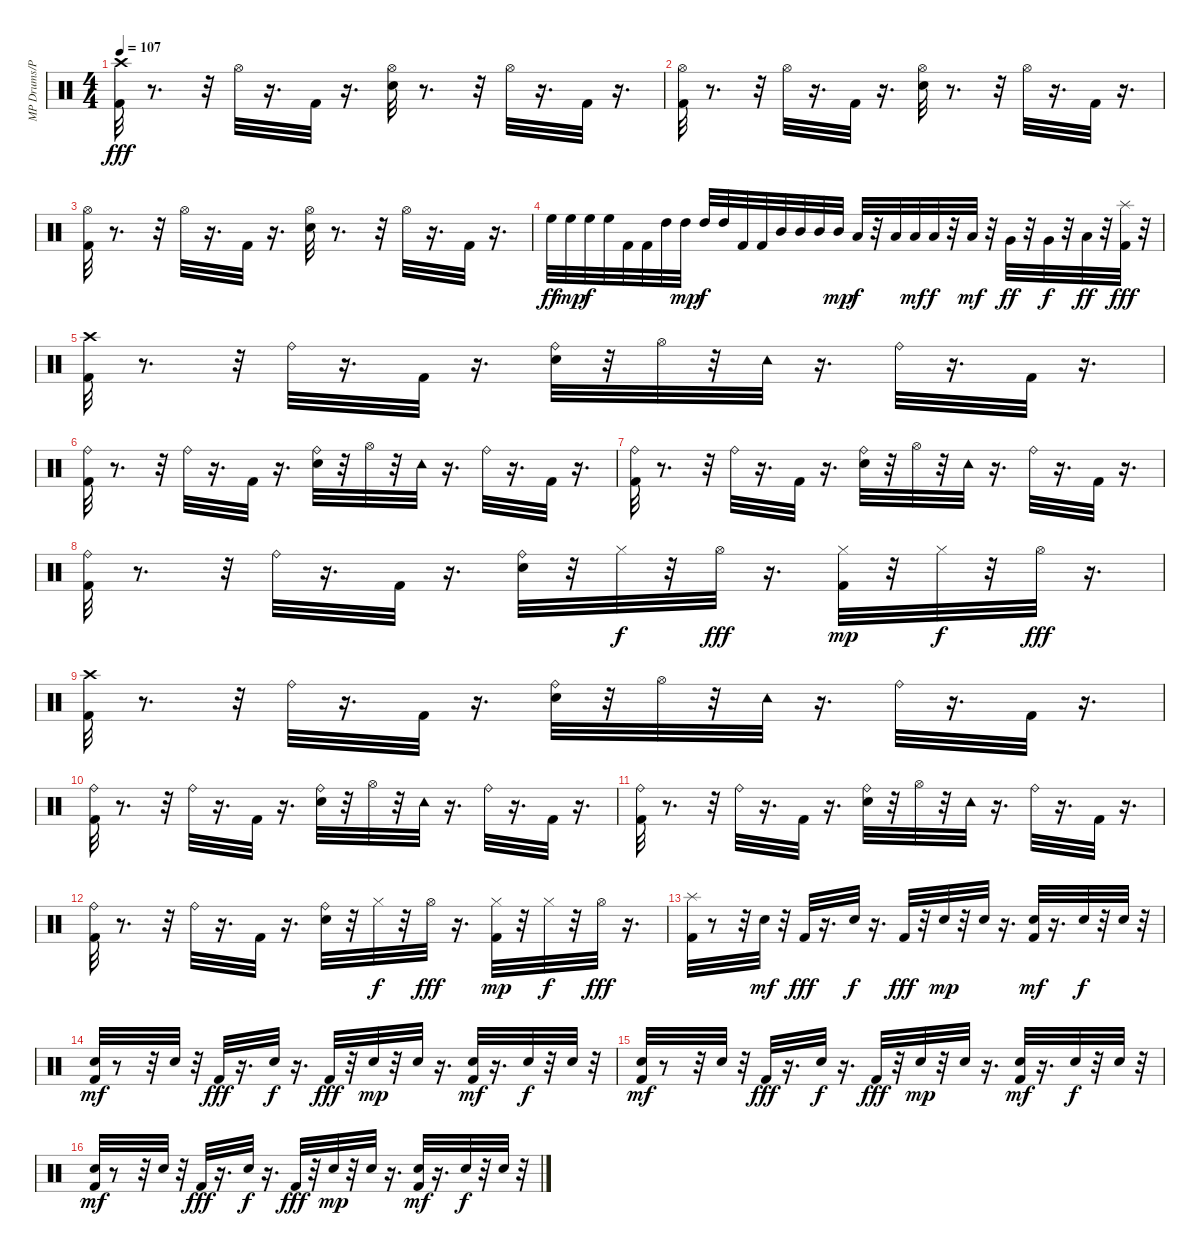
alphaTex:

\track ("MP Drums/Percussion" "MP Drums/P") {instrument percussion}
\staff {score}
\articulation defaults
\ts (4 4)
\tempo 107
\clef neutral
\ks c
("Kick (hit) 2" "Crash high (hit)").32{dy fff} r.8{d} r.32 "Hi-Hat (open)".32 r.16{d} "Kick (hit) 2".32 r.16{d} ("Snare (hit) 2" "Hi-Hat (open)").32 r.8{d} r.32 "Hi-Hat (open)".32 r.16{d} "Kick (hit) 2".32 r.16{d} |
("Kick (hit) 2" "Hi-Hat (open)").32 r.8{d} r.32 "Hi-Hat (open)".32 r.16{d} "Kick (hit) 2".32 r.16{d} ("Snare (hit) 2" "Hi-Hat (open)").32 r.8{d} r.32 "Hi-Hat (open)".32 r.16{d} "Kick (hit) 2".32 r.16{d} |
("Kick (hit) 2" "Hi-Hat (open)").32 r.8{d} r.32 "Hi-Hat (open)".32 r.16{d} "Kick (hit) 2".32 r.16{d} ("Snare (hit) 2" "Hi-Hat (open)").32 r.8{d} r.32 "Hi-Hat (open)".32 r.16{d} "Kick (hit) 2".32 r.16{d} |
"High Floor Tom (hit)".32{dy ff} "High Floor Tom (hit)".32{dy mp} "High Floor Tom (hit)".32{dy f} "High Floor Tom (hit)".32 "Kick (hit) 2".32 "Kick (hit) 2".32 "High Tom (hit)".32 "High Tom (hit)".32{dy mp} "High Tom (hit)".32{dy f} "High Tom (hit)".32 "Kick (hit) 2".32 "Kick (hit) 2".32 "Mid Tom (hit)".32 "Mid Tom (hit)".32 "Mid Tom (hit)".32 "Mid Tom (hit)".32{dy mp} "Low Tom (hit)".32{dy f} r.32 "Low Tom (hit)".32 "Low Tom (hit)".32{dy mf} "Low Tom (hit)".32{dy f} r.32 "Low Tom (hit)".32{dy mf} r.32 "Very Low Tom (hit)".32{dy ff} r.32 "Very Low Tom (hit)".32{dy f} r.32 "Low Floor Tom (hit)".32{dy ff} r.32 ("Kick (hit) 2" "Splash (hit)").32{dy fff} r.32 |
("Kick (hit) 2" "Crash high (hit)").32 r.8{d} r.32 "Ride (bell)".32 r.16{d} "Kick (hit) 2".32 r.16{d} ("Snare (hit) 2" "Ride (bell)").32 r.32 "Hi-Hat (open)".32 r.32 "Tambourine (hit)".32 r.16{d} "Ride (bell)".32 r.16{d} "Kick (hit) 2".32 r.16{d} |
("Kick (hit) 2" "Ride (bell)").32 r.8{d} r.32 "Ride (bell)".32 r.16{d} "Kick (hit) 2".32 r.16{d} ("Snare (hit) 2" "Ride (bell)").32 r.32 "Hi-Hat (open)".32 r.32 "Tambourine (hit)".32 r.16{d} "Ride (bell)".32 r.16{d} "Kick (hit) 2".32 r.16{d} |
("Kick (hit) 2" "Ride (bell)").32 r.8{d} r.32 "Ride (bell)".32 r.16{d} "Kick (hit) 2".32 r.16{d} ("Snare (hit) 2" "Ride (bell)").32 r.32 "Hi-Hat (open)".32 r.32 "Tambourine (hit)".32 r.16{d} "Ride (bell)".32 r.16{d} "Kick (hit) 2".32 r.16{d} |
("Kick (hit) 2" "Ride (bell)").32 r.8{d} r.32 "Ride (bell)".32 r.16{d} "Kick (hit) 2".32 r.16{d} ("Snare (hit) 2" "Ride (bell)").32 r.32 "Hi-Hat (closed)".32{dy f} r.32 "Hi-Hat (open)".32{dy fff} r.16{d} ("Kick (hit) 2" "Hi-Hat (closed)").32{dy mp} r.32 "Hi-Hat (closed)".32{dy f} r.32 "Hi-Hat (open)".32{dy fff} r.16{d} |
("Kick (hit) 2" "Crash high (hit)").32 r.8{d} r.32 "Ride (bell)".32 r.16{d} "Kick (hit) 2".32 r.16{d} ("Snare (hit) 2" "Ride (bell)").32 r.32 "Hi-Hat (open)".32 r.32 "Tambourine (hit)".32 r.16{d} "Ride (bell)".32 r.16{d} "Kick (hit) 2".32 r.16{d} |
("Kick (hit) 2" "Ride (bell)").32 r.8{d} r.32 "Ride (bell)".32 r.16{d} "Kick (hit) 2".32 r.16{d} ("Snare (hit) 2" "Ride (bell)").32 r.32 "Hi-Hat (open)".32 r.32 "Tambourine (hit)".32 r.16{d} "Ride (bell)".32 r.16{d} "Kick (hit) 2".32 r.16{d} |
("Kick (hit) 2" "Ride (bell)").32 r.8{d} r.32 "Ride (bell)".32 r.16{d} "Kick (hit) 2".32 r.16{d} ("Snare (hit) 2" "Ride (bell)").32 r.32 "Hi-Hat (open)".32 r.32 "Tambourine (hit)".32 r.16{d} "Ride (bell)".32 r.16{d} "Kick (hit) 2".32 r.16{d} |
("Kick (hit) 2" "Ride (bell)").32 r.8{d} r.32 "Ride (bell)".32 r.16{d} "Kick (hit) 2".32 r.16{d} ("Snare (hit) 2" "Ride (bell)").32 r.32 "Hi-Hat (closed)".32{dy f} r.32 "Hi-Hat (open)".32{dy fff} r.16{d} ("Kick (hit) 2" "Hi-Hat (closed)").32{dy mp} r.32 "Hi-Hat (closed)".32{dy f} r.32 "Hi-Hat (open)".32{dy fff} r.16{d} |
("Kick (hit) 2" "Splash (hit)").32 r.8 r.32 "Snare (hit) 2".32{dy mf} r.32 "Kick (hit) 2".32{dy fff} r.16{d} "Snare (hit) 2".32{dy f} r.16{d} "Kick (hit) 2".32{dy fff} r.32 "Snare (hit) 2".32{dy mp} r.32 "Snare (hit) 2".32 r.16{d} ("Kick (hit) 2" "Snare (hit) 2").32{dy mf} r.16{d} "Snare (hit) 2".32{dy f} r.32 "Snare (hit) 2".32 r.32 |
("Kick (hit) 2" "Snare (hit) 2").32{dy mf} r.8 r.32 "Snare (hit) 2".32 r.32 "Kick (hit) 2".32{dy fff} r.16{d} "Snare (hit) 2".32{dy f} r.16{d} "Kick (hit) 2".32{dy fff} r.32 "Snare (hit) 2".32{dy mp} r.32 "Snare (hit) 2".32 r.16{d} ("Kick (hit) 2" "Snare (hit) 2").32{dy mf} r.16{d} "Snare (hit) 2".32{dy f} r.32 "Snare (hit) 2".32 r.32 |
("Kick (hit) 2" "Snare (hit) 2").32{dy mf} r.8 r.32 "Snare (hit) 2".32 r.32 "Kick (hit) 2".32{dy fff} r.16{d} "Snare (hit) 2".32{dy f} r.16{d} "Kick (hit) 2".32{dy fff} r.32 "Snare (hit) 2".32{dy mp} r.32 "Snare (hit) 2".32 r.16{d} ("Kick (hit) 2" "Snare (hit) 2").32{dy mf} r.16{d} "Snare (hit) 2".32{dy f} r.32 "Snare (hit) 2".32 r.32 |
("Kick (hit) 2" "Snare (hit) 2").32{dy mf} r.8 r.32 "Snare (hit) 2".32 r.32 "Kick (hit) 2".32{dy fff} r.16{d} "Snare (hit) 2".32{dy f} r.16{d} "Kick (hit) 2".32{dy fff} r.32 "Snare (hit) 2".32{dy mp} r.32 "Snare (hit) 2".32 r.16{d} ("Kick (hit) 2" "Snare (hit) 2").32{dy mf} r.16{d} "Snare (hit) 2".32{dy f} r.32 "Snare (hit) 2".32 r.32
